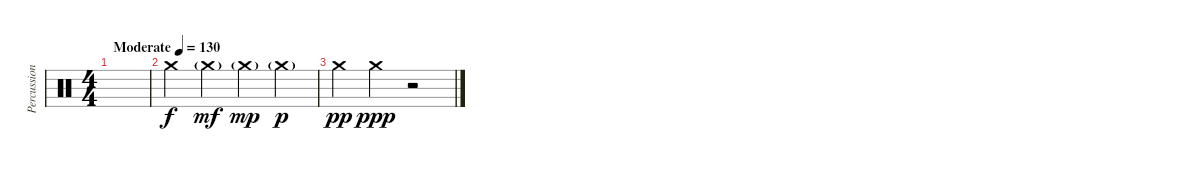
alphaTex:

\track ("Percussion" "Percussion") {instrument percussion}
\staff {score}
\articulation defaults
\ts (4 4)
\tempo (130 "Moderate")
\clef neutral
\ks c
|
"Crash medium (hit)".4 "Crash medium (hit)"{g}.4{dy mf} "Crash medium (hit)"{g}.4{dy mp} "Crash medium (hit)"{g}.4{dy p} |
"Crash medium (hit)".4{dy pp} "Crash medium (hit)".4{dy ppp} r.2
